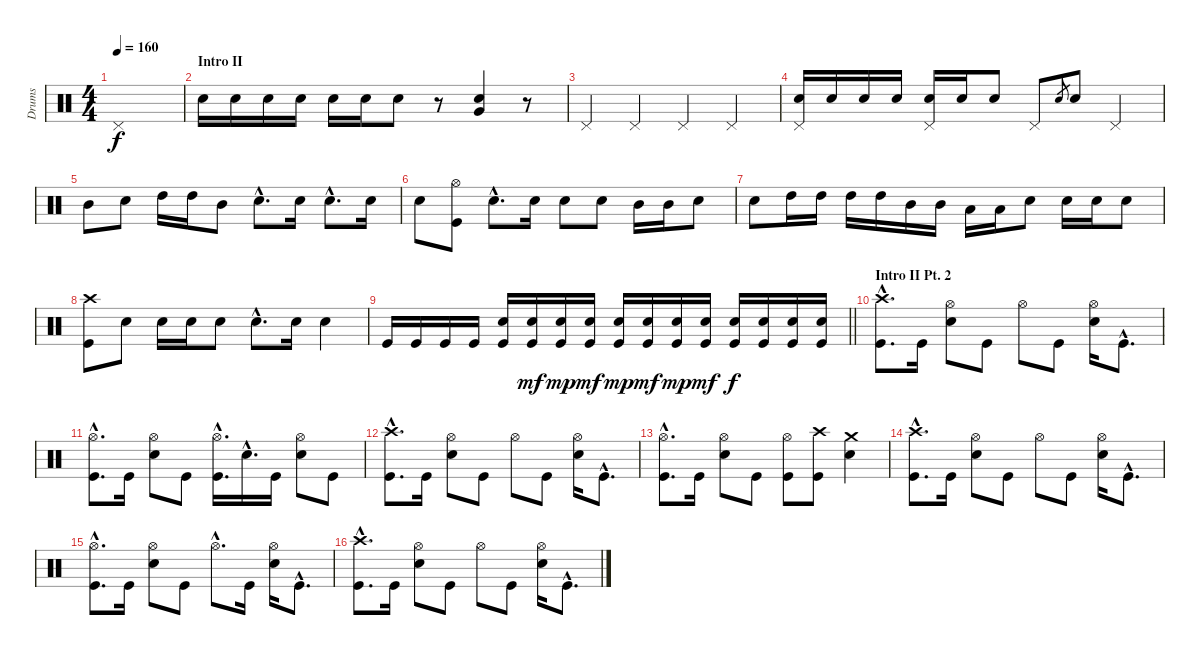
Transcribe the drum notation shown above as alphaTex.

\track ("Drums" "Drums") {instrument percussion}
\staff {score}
\articulation defaults
\ts (4 4)
\tempo 160
\clef neutral
\ks c "Pedal Hi-Hat (hit)".1{dy f}
|
\section ("" "Intro II")
"Electric Snare (hit)".16 "Electric Snare (hit)".16 "Electric Snare (hit)".16 "Electric Snare (hit)".16 "Electric Snare (hit)".16 "Electric Snare (hit)".16 "Electric Snare (hit)".8 r.8 ("Very Low Tom (hit)" "Electric Snare (hit)").4 r.8 |
"Pedal Hi-Hat (hit)".4 "Pedal Hi-Hat (hit)".4 "Pedal Hi-Hat (hit)".4 "Pedal Hi-Hat (hit)".4 |
("Electric Snare (hit)" "Pedal Hi-Hat (hit)").16 "Electric Snare (hit)".16 "Electric Snare (hit)".16 "Electric Snare (hit)".16 ("Electric Snare (hit)" "Pedal Hi-Hat (hit)").16 "Electric Snare (hit)".16 "Electric Snare (hit)".8 "Pedal Hi-Hat (hit)".8 "Electric Snare (hit)".8{gr} "Electric Snare (hit)".8 "Pedal Hi-Hat (hit)".4 |
"Mid Tom (hit)".8 "Electric Snare (hit)".8 "High Tom (hit)".16 "High Tom (hit)".16 "Mid Tom (hit)".8 "Electric Snare (hit)"{hac}.8{d} "Electric Snare (hit)".16 "Electric Snare (hit)"{hac}.8{d} "Electric Snare (hit)".16 |
"Electric Snare (hit)".8 ("Hi-Hat (open)" "Kick (hit)").8 "Electric Snare (hit)"{hac}.8{d} "Electric Snare (hit)".16 "Electric Snare (hit)".8 "Electric Snare (hit)".8 "Mid Tom (hit)".16 "Mid Tom (hit)".16 "Electric Snare (hit)".8 |
"Electric Snare (hit)".8 "High Tom (hit)".16 "High Tom (hit)".16 "High Tom (hit)".16 "High Tom (hit)".16 "Mid Tom (hit)".16 "Mid Tom (hit)".16 "Low Tom (hit)".16 "Low Tom (hit)".16 "Electric Snare (hit)".8 "Electric Snare (hit)".16 "Electric Snare (hit)".16 "Electric Snare (hit)".8 |
("Crash high (hit)" "Kick (hit)").8 "Electric Snare (hit)".8 "Electric Snare (hit)".16 "Electric Snare (hit)".16 "Electric Snare (hit)".8 "Electric Snare (hit)"{hac}.8{d} "Electric Snare (hit)".16 "Electric Snare (hit)".4 |
\barLineRight lightlight "Kick (hit)".16 "Kick (hit)".16 "Kick (hit)".16 "Kick (hit)".16
("Electric Snare (hit)" "Kick (hit)").16 ("Electric Snare (hit)" "Kick (hit)").16{dy mf} ("Electric Snare (hit)" "Kick (hit)").16{dy mp} ("Electric Snare (hit)" "Kick (hit)").16{dy mf} ("Electric Snare (hit)" "Kick (hit)").16{dy mp} ("Electric Snare (hit)" "Kick (hit)").16{dy mf} ("Electric Snare (hit)" "Kick (hit)").16{dy mp} ("Electric Snare (hit)" "Kick (hit)").16{dy mf} ("Electric Snare (hit)" "Kick (hit)").16{dy f} ("Electric Snare (hit)" "Kick (hit)").16 ("Electric Snare (hit)" "Kick (hit)").16 ("Electric Snare (hit)" "Kick (hit)").16 |
\section ("" "Intro II Pt. 2")
("Crash high (hit)"{hac} "Kick (hit)"{hac}).8{d} "Kick (hit)".16 ("Hi-Hat (open)" "Electric Snare (hit)").8 "Kick (hit)".8 "Hi-Hat (open)".8 "Kick (hit)".8 ("Hi-Hat (open)" "Electric Snare (hit)").16 "Kick (hit)"{hac}.8{d} |
("Hi-Hat (open)"{hac} "Kick (hit)"{hac}).8{d} "Kick (hit)".16 ("Hi-Hat (open)" "Electric Snare (hit)").8 "Kick (hit)".8 ("Hi-Hat (open)"{hac} "Kick (hit)"{hac}).16{d} "Electric Snare (hit)"{hac}.16{d} "Kick (hit)".16 ("Hi-Hat (open)" "Electric Snare (hit)").8 "Kick (hit)".8 |
("Crash high (hit)"{hac} "Kick (hit)"{hac}).8{d} "Kick (hit)".16 ("Hi-Hat (open)" "Electric Snare (hit)").8 "Kick (hit)".8 "Hi-Hat (open)".8 "Kick (hit)".8 ("Hi-Hat (open)" "Electric Snare (hit)").16 "Kick (hit)"{hac}.8{d} |
("Hi-Hat (open)"{hac} "Kick (hit)"{hac}).8{d} "Kick (hit)".16 ("Hi-Hat (open)" "Electric Snare (hit)").8 "Kick (hit)".8 ("Hi-Hat (open)" "Kick (hit)").8 ("Crash high (hit)" "Kick (hit)").8 ("Crash medium (hit)" "Electric Snare (hit)").4 |
("Crash high (hit)"{hac} "Kick (hit)"{hac}).8{d} "Kick (hit)".16 ("Hi-Hat (open)" "Electric Snare (hit)").8 "Kick (hit)".8 "Hi-Hat (open)".8 "Kick (hit)".8 ("Hi-Hat (open)" "Electric Snare (hit)").16 "Kick (hit)"{hac}.8{d} |
("Hi-Hat (open)"{hac} "Kick (hit)"{hac}).8{d} "Kick (hit)".16 ("Hi-Hat (open)" "Electric Snare (hit)").8 "Kick (hit)".8 "Hi-Hat (open)"{hac}.8{d} "Kick (hit)".16 ("Hi-Hat (open)" "Electric Snare (hit)").16 "Kick (hit)"{hac}.8{d} |
("Crash high (hit)"{hac} "Kick (hit)"{hac}).8{d} "Kick (hit)".16 ("Hi-Hat (open)" "Electric Snare (hit)").8 "Kick (hit)".8 "Hi-Hat (open)".8 "Kick (hit)".8 ("Hi-Hat (open)" "Electric Snare (hit)").16 "Kick (hit)"{hac}.8{d}
